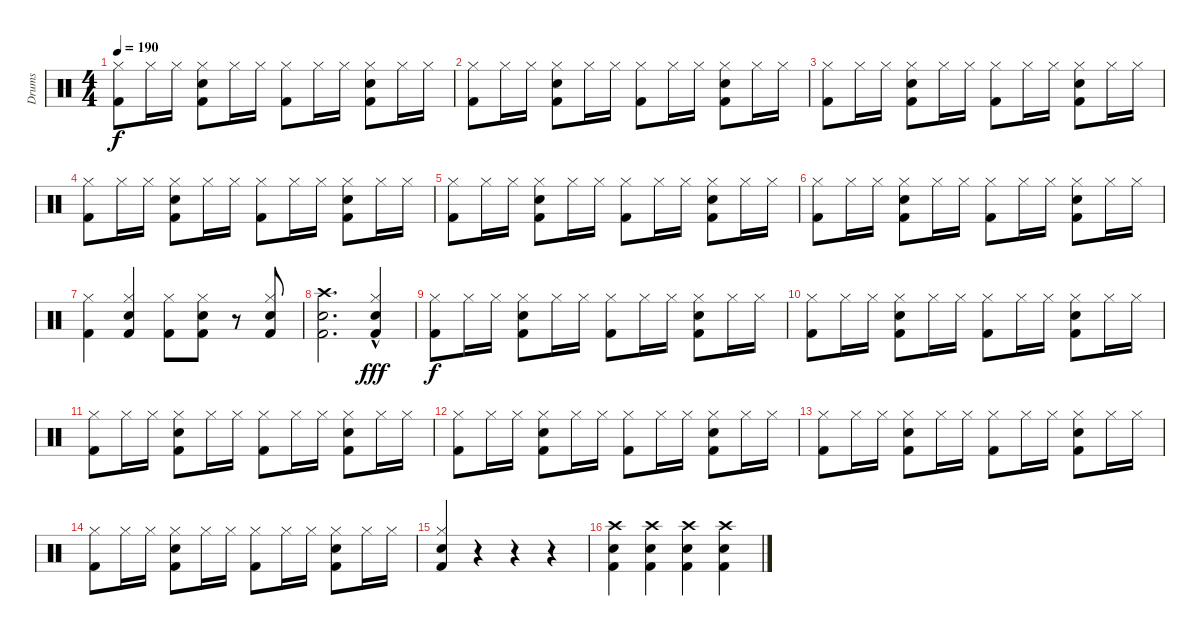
\track ("Drums" "Drums") {instrument percussion}
\staff {score}
\articulation defaults
\ts (4 4)
\tempo 190
\clef neutral
\ks c
("Kick (hit) 2" "Hi-Hat (closed)").8{dy f} "Hi-Hat (closed)".16 "Hi-Hat (closed)".16 ("Kick (hit) 2" "Snare (hit) 2" "Hi-Hat (closed)").8 "Hi-Hat (closed)".16 "Hi-Hat (closed)".16 ("Kick (hit) 2" "Hi-Hat (closed)").8 "Hi-Hat (closed)".16 "Hi-Hat (closed)".16 ("Kick (hit) 2" "Snare (hit) 2" "Hi-Hat (closed)").8 "Hi-Hat (closed)".16 "Hi-Hat (closed)".16 |
("Kick (hit) 2" "Hi-Hat (closed)").8 "Hi-Hat (closed)".16 "Hi-Hat (closed)".16 ("Kick (hit) 2" "Snare (hit) 2" "Hi-Hat (closed)").8 "Hi-Hat (closed)".16 "Hi-Hat (closed)".16 ("Kick (hit) 2" "Hi-Hat (closed)").8 "Hi-Hat (closed)".16 "Hi-Hat (closed)".16 ("Kick (hit) 2" "Snare (hit) 2" "Hi-Hat (closed)").8 "Hi-Hat (closed)".16 "Hi-Hat (closed)".16 |
("Kick (hit) 2" "Hi-Hat (closed)").8 "Hi-Hat (closed)".16 "Hi-Hat (closed)".16 ("Kick (hit) 2" "Snare (hit) 2" "Hi-Hat (closed)").8 "Hi-Hat (closed)".16 "Hi-Hat (closed)".16 ("Kick (hit) 2" "Hi-Hat (closed)").8 "Hi-Hat (closed)".16 "Hi-Hat (closed)".16 ("Kick (hit) 2" "Snare (hit) 2" "Hi-Hat (closed)").8 "Hi-Hat (closed)".16 "Hi-Hat (closed)".16 |
("Kick (hit) 2" "Hi-Hat (closed)").8 "Hi-Hat (closed)".16 "Hi-Hat (closed)".16 ("Kick (hit) 2" "Snare (hit) 2" "Hi-Hat (closed)").8 "Hi-Hat (closed)".16 "Hi-Hat (closed)".16 ("Kick (hit) 2" "Hi-Hat (closed)").8 "Hi-Hat (closed)".16 "Hi-Hat (closed)".16 ("Kick (hit) 2" "Snare (hit) 2" "Hi-Hat (closed)").8 "Hi-Hat (closed)".16 "Hi-Hat (closed)".16 |
("Kick (hit) 2" "Hi-Hat (closed)").8 "Hi-Hat (closed)".16 "Hi-Hat (closed)".16 ("Kick (hit) 2" "Snare (hit) 2" "Hi-Hat (closed)").8 "Hi-Hat (closed)".16 "Hi-Hat (closed)".16 ("Kick (hit) 2" "Hi-Hat (closed)").8 "Hi-Hat (closed)".16 "Hi-Hat (closed)".16 ("Kick (hit) 2" "Snare (hit) 2" "Hi-Hat (closed)").8 "Hi-Hat (closed)".16 "Hi-Hat (closed)".16 |
("Kick (hit) 2" "Hi-Hat (closed)").8 "Hi-Hat (closed)".16 "Hi-Hat (closed)".16 ("Kick (hit) 2" "Snare (hit) 2" "Hi-Hat (closed)").8 "Hi-Hat (closed)".16 "Hi-Hat (closed)".16 ("Kick (hit) 2" "Hi-Hat (closed)").8 "Hi-Hat (closed)".16 "Hi-Hat (closed)".16 ("Kick (hit) 2" "Snare (hit) 2" "Hi-Hat (closed)").8 "Hi-Hat (closed)".16 "Hi-Hat (closed)".16 |
("Kick (hit) 2" "Hi-Hat (closed)").4 ("Kick (hit) 2" "Snare (hit) 2" "Hi-Hat (closed)").4 ("Kick (hit) 2" "Hi-Hat (closed)").8 ("Kick (hit) 2" "Snare (hit) 2" "Hi-Hat (closed)").8 r.8 ("Kick (hit) 2" "Snare (hit) 2" "Hi-Hat (closed)").8 |
("Kick (hit) 2" "Snare (hit) 2" "Crash high (hit)").2{d} ("Kick (hit) 2"{hac} "Snare (hit) 2"{hac} "Hi-Hat (closed)"{hac}).4{dy fff} |
("Kick (hit) 2" "Hi-Hat (closed)").8{dy f} "Hi-Hat (closed)".16 "Hi-Hat (closed)".16 ("Kick (hit) 2" "Snare (hit) 2" "Hi-Hat (closed)").8 "Hi-Hat (closed)".16 "Hi-Hat (closed)".16 ("Kick (hit) 2" "Hi-Hat (closed)").8 "Hi-Hat (closed)".16 "Hi-Hat (closed)".16 ("Kick (hit) 2" "Snare (hit) 2" "Hi-Hat (closed)").8 "Hi-Hat (closed)".16 "Hi-Hat (closed)".16 |
("Kick (hit) 2" "Hi-Hat (closed)").8 "Hi-Hat (closed)".16 "Hi-Hat (closed)".16 ("Kick (hit) 2" "Snare (hit) 2" "Hi-Hat (closed)").8 "Hi-Hat (closed)".16 "Hi-Hat (closed)".16 ("Kick (hit) 2" "Hi-Hat (closed)").8 "Hi-Hat (closed)".16 "Hi-Hat (closed)".16 ("Kick (hit) 2" "Snare (hit) 2" "Hi-Hat (closed)").8 "Hi-Hat (closed)".16 "Hi-Hat (closed)".16 |
("Kick (hit) 2" "Hi-Hat (closed)").8 "Hi-Hat (closed)".16 "Hi-Hat (closed)".16 ("Kick (hit) 2" "Snare (hit) 2" "Hi-Hat (closed)").8 "Hi-Hat (closed)".16 "Hi-Hat (closed)".16 ("Kick (hit) 2" "Hi-Hat (closed)").8 "Hi-Hat (closed)".16 "Hi-Hat (closed)".16 ("Kick (hit) 2" "Snare (hit) 2" "Hi-Hat (closed)").8 "Hi-Hat (closed)".16 "Hi-Hat (closed)".16 |
("Kick (hit) 2" "Hi-Hat (closed)").8 "Hi-Hat (closed)".16 "Hi-Hat (closed)".16 ("Kick (hit) 2" "Snare (hit) 2" "Hi-Hat (closed)").8 "Hi-Hat (closed)".16 "Hi-Hat (closed)".16 ("Kick (hit) 2" "Hi-Hat (closed)").8 "Hi-Hat (closed)".16 "Hi-Hat (closed)".16 ("Kick (hit) 2" "Snare (hit) 2" "Hi-Hat (closed)").8 "Hi-Hat (closed)".16 "Hi-Hat (closed)".16 |
("Kick (hit) 2" "Hi-Hat (closed)").8 "Hi-Hat (closed)".16 "Hi-Hat (closed)".16 ("Kick (hit) 2" "Snare (hit) 2" "Hi-Hat (closed)").8 "Hi-Hat (closed)".16 "Hi-Hat (closed)".16 ("Kick (hit) 2" "Hi-Hat (closed)").8 "Hi-Hat (closed)".16 "Hi-Hat (closed)".16 ("Kick (hit) 2" "Snare (hit) 2" "Hi-Hat (closed)").8 "Hi-Hat (closed)".16 "Hi-Hat (closed)".16 |
("Kick (hit) 2" "Hi-Hat (closed)").8 "Hi-Hat (closed)".16 "Hi-Hat (closed)".16 ("Kick (hit) 2" "Snare (hit) 2" "Hi-Hat (closed)").8 "Hi-Hat (closed)".16 "Hi-Hat (closed)".16 ("Kick (hit) 2" "Hi-Hat (closed)").8 "Hi-Hat (closed)".16 "Hi-Hat (closed)".16 ("Kick (hit) 2" "Snare (hit) 2" "Hi-Hat (closed)").8 "Hi-Hat (closed)".16 "Hi-Hat (closed)".16 |
("Kick (hit) 2" "Hi-Hat (closed)" "Snare (hit) 2").4 r.4 r.4 r.4 |
("Kick (hit) 2" "Snare (hit) 2" "Crash high (hit)").4 ("Kick (hit) 2" "Snare (hit) 2" "Crash high (hit)").4 ("Kick (hit) 2" "Snare (hit) 2" "Crash high (hit)").4 ("Kick (hit) 2" "Snare (hit) 2" "Crash high (hit)").4
